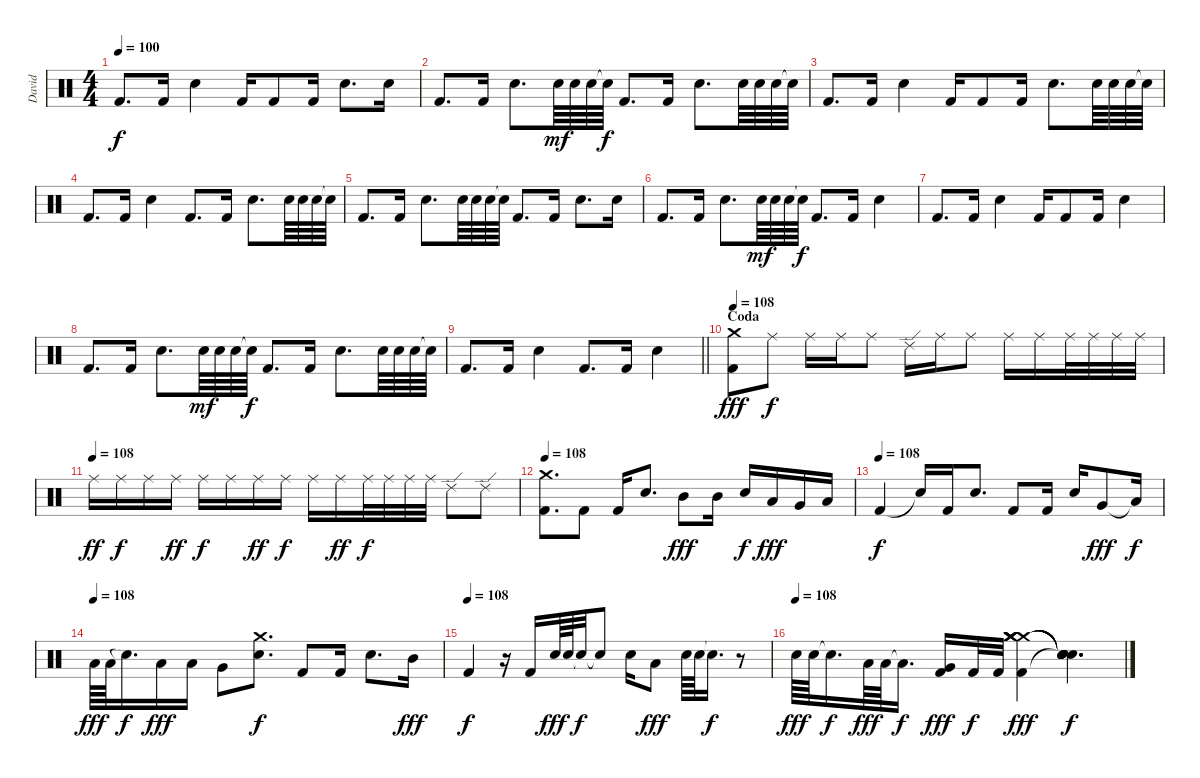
\track ("David" "David") {instrument percussion}
\staff {score}
\articulation defaults
\ts (4 4)
\tempo 100
\clef neutral
\ks c "Kick (hit) 2".8{d dy f} "Kick (hit) 2".16 "Snare (hit) 2".4 "Kick (hit) 2".16 "Kick (hit) 2".8 "Kick (hit) 2".16 "Snare (hit) 2".8{d} "Snare (hit) 2".16
|
"Kick (hit) 2".8{d} "Kick (hit) 2".16 "Snare (hit) 2".8{d} "Snare (hit) 2".64{dy mf} "Snare (hit) 2".64 "Snare (hit) 2".64 "Snare (hit)"{t}.64{dy f} "Kick (hit) 2".8{d} "Kick (hit) 2".16 "Snare (hit) 2".8{d} "Snare (hit) 2".64 "Snare (hit) 2".64 "Snare (hit) 2".64 "Snare (hit)"{t}.64 |
"Kick (hit) 2".8{d} "Kick (hit) 2".16 "Snare (hit) 2".4 "Kick (hit) 2".16 "Kick (hit) 2".8 "Kick (hit) 2".16 "Snare (hit) 2".8{d} "Snare (hit) 2".64 "Snare (hit) 2".64 "Snare (hit) 2".64 "Snare (hit)"{t}.64 |
"Kick (hit) 2".8{d} "Kick (hit) 2".16 "Snare (hit) 2".4 "Kick (hit) 2".8{d} "Kick (hit) 2".16 "Snare (hit) 2".8{d} "Snare (hit) 2".64 "Snare (hit) 2".64 "Snare (hit) 2".64 "Snare (hit)"{t}.64 |
"Kick (hit) 2".8{d} "Kick (hit) 2".16 "Snare (hit) 2".8{d} "Snare (hit) 2".64 "Snare (hit) 2".64 "Snare (hit) 2".64 "Snare (hit)"{t}.64 "Kick (hit) 2".8{d} "Kick (hit) 2".16 "Snare (hit) 2".8{d} "Snare (hit) 2".16 |
"Kick (hit) 2".8{d} "Kick (hit) 2".16 "Snare (hit) 2".8{d} "Snare (hit) 2".64{dy mf} "Snare (hit) 2".64 "Snare (hit) 2".64 "Snare (hit)"{t}.64{dy f} "Kick (hit) 2".8{d} "Kick (hit) 2".16 "Snare (hit) 2".4 |
"Kick (hit) 2".8{d} "Kick (hit) 2".16 "Snare (hit) 2".4 "Kick (hit) 2".16 "Kick (hit) 2".8 "Kick (hit) 2".16 "Snare (hit) 2".4 |
"Kick (hit) 2".8{d} "Kick (hit) 2".16 "Snare (hit) 2".8{d} "Snare (hit) 2".64{dy mf} "Snare (hit) 2".64 "Snare (hit) 2".64 "Snare (hit)"{t}.64{dy f} "Kick (hit) 2".8{d} "Kick (hit) 2".16 "Snare (hit) 2".8{d} "Snare (hit) 2".64 "Snare (hit) 2".64 "Snare (hit) 2".64 "Snare (hit)"{t}.64 |
\barLineRight lightlight "Kick (hit) 2".8{d} "Kick (hit) 2".16 "Snare (hit) 2".4 "Kick (hit) 2".8{d} "Kick (hit) 2".16 "Snare (hit) 2".4
|
\section ("" "Coda")
\tempo 108
("Kick (hit) 2" "Crash medium (hit)").8{dy fff} "Ride (middle)".8{dy f} "Ride (middle)".16 "Ride (middle)".16 "Ride (middle)".8 "Ride (edge) 2".16 "Ride (middle)".16 "Ride (middle)".8 "Ride (middle)".16 "Ride (middle)".16 "Ride (middle)".32 "Ride (middle)".32 "Ride (middle)".32 "Ride (middle)".32 |
\tempo (108)
"Ride (middle)".16{dy ff} "Ride (middle)".16{dy f} "Ride (middle)".16 "Ride (middle)".16{dy ff} "Ride (middle)".16{dy f} "Ride (middle)".16 "Ride (middle)".16{dy ff} "Ride (middle)".16{dy f} "Ride (middle)".16 "Ride (middle)".16{dy ff} "Ride (middle)".32{dy f} "Ride (middle)".32 "Ride (middle)".32 "Ride (middle)".32 "Ride (edge) 2".8 "Ride (edge) 2".8 |
\tempo 108
("Crash medium (hit)" "Kick (hit) 2").8{d} "Kick (hit) 2".8 "Kick (hit) 2".16 "Snare (hit) 2".8{d} "Mid Tom (hit)".8{dy fff} "Mid Tom (hit)".16 "Snare (hit) 2".16{dy f} "Low Tom (hit)".16{dy fff} "Very Low Tom (hit)".16 "Low Floor Tom (hit)".16 |
\tempo (108)
"Kick (hit) 2".4{dy f} "Snare (hit)"{t}.16 "Kick (hit) 2".16 "Snare (hit) 2".8{d} "Kick (hit) 2".8 "Kick (hit) 2".16 "Snare (hit) 2".16 "Very Low Tom (hit)".8{dy fff} "Low Floor Tom (hit)"{t}.16{dy f} |
\tempo (108)
"Low Floor Tom (hit)".64{dy fff} "Low Floor Tom (hit)".64 "Snare (hit)"{t}.16{d dy f} "Low Tom (hit)".16{dy fff} "Low Tom (hit)".16 "Very Low Tom (hit)".8 ("Crash medium (hit)" "Snare (hit) 2").8{d dy f} "Kick (hit) 2".8 "Kick (hit) 2".16 "Snare (hit) 2".8{d} "Mid Tom (hit)".16{dy fff} |
\tempo (108)
"Kick (hit) 2".4{dy f} r.16 "Kick (hit) 2".16 "Snare (hit) 2".64{dy fff} "Snare (hit) 2".64 "Snare (hit)"{t}.32{dy f} "Snare (hit) 2"{t}.8 "Snare (hit) 2".16 "Low Tom (hit)".8{dy fff} "Snare (hit) 2".64 "Snare (hit) 2".64 "Snare (hit)"{t}.16{d dy f} r.8 |
\tempo (108)
"Snare (hit) 2".64{dy fff} "Snare (hit) 2".64 "Snare (hit) 2"{t}.16{d dy f} "Low Tom (hit)".64{dy fff} "Low Tom (hit)".64 "Low Tom (hit)"{t}.16{d dy f} ("Very Low Tom (hit)" "Kick (hit) 2").16{dy fff} "Kick (hit) 2".32{dy f} "Kick (hit) 2".32 ("Crash medium (hit)" "Crash medium (hit)" "Kick (hit) 2" "Crash medium (hit)" "Crash medium (hit)" "Crash medium (hit)").4{dy fff} ("Snare (hit)"{t} "Snare (hit)"{t} "Snare (hit)"{t} "Snare (hit)"{t} "Snare (hit)"{t} "Snare (hit)"{t}).4{d dy f}
